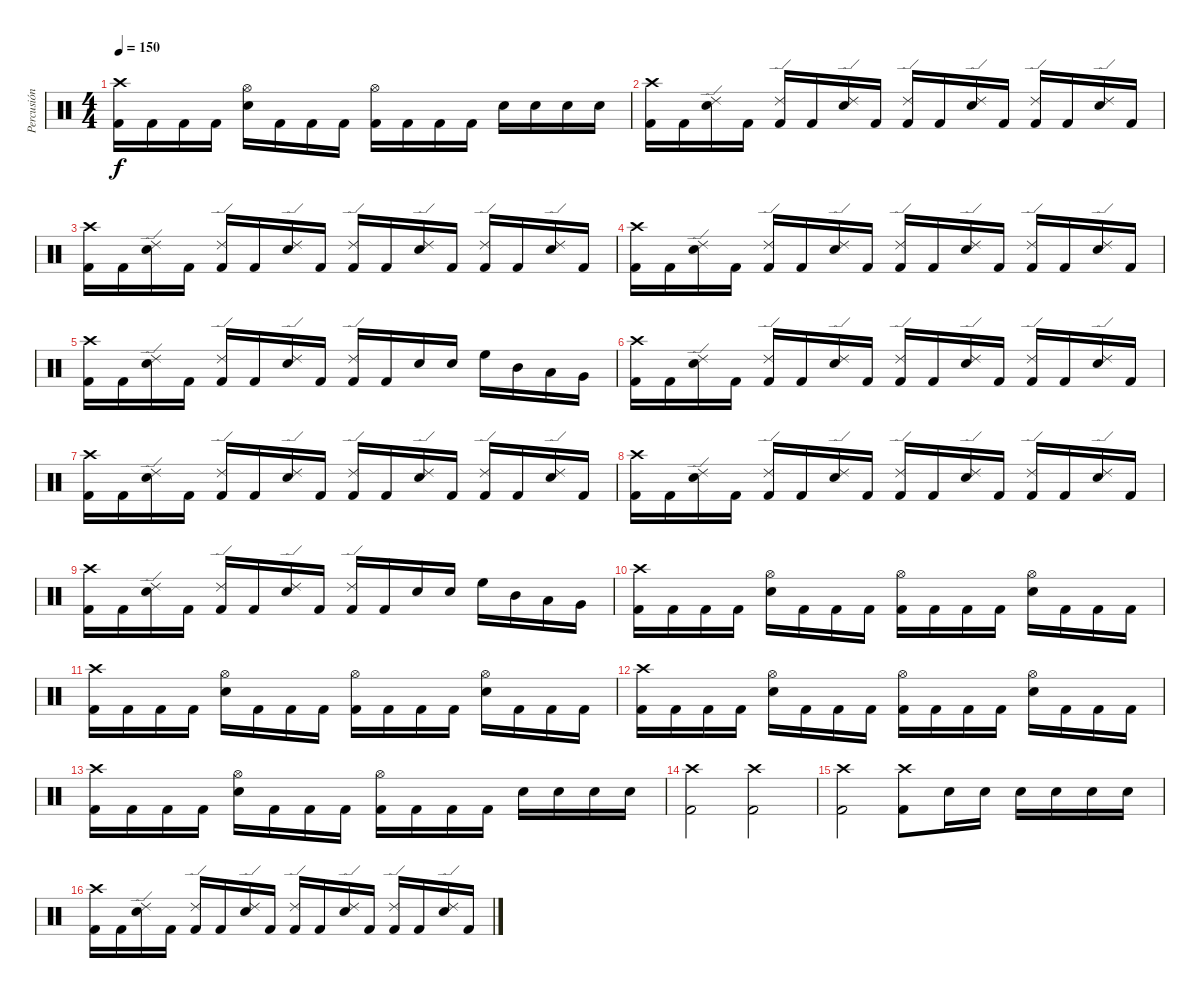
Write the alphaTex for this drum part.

\track ("Percusión" "Percusión") {instrument percussion}
\staff {score}
\articulation defaults
\ts (4 4)
\tempo 150
\clef neutral
\ks c
("Crash high (hit)" "Kick (hit) 2").16{dy f} "Kick (hit) 2".16 "Kick (hit) 2".16 "Kick (hit) 2".16 ("Hi-Hat (open)" "Electric Snare (hit)").16 "Kick (hit) 2".16 "Kick (hit) 2".16 "Kick (hit) 2".16 ("Hi-Hat (open)" "Kick (hit) 2").16 "Kick (hit) 2".16 "Kick (hit) 2".16 "Kick (hit) 2".16 "Electric Snare (hit)".16 "Electric Snare (hit)".16 "Electric Snare (hit)".16 "Electric Snare (hit)".16 |
("Crash high (hit)" "Kick (hit) 2").16 "Kick (hit) 2".16 ("Ride (edge) 2" "Electric Snare (hit)").16 "Kick (hit) 2".16 ("Ride (edge) 2" "Kick (hit) 2").16 "Kick (hit) 2".16 ("Ride (edge) 2" "Electric Snare (hit)").16 "Kick (hit) 2".16 ("Ride (edge) 2" "Kick (hit) 2").16 "Kick (hit) 2".16 ("Ride (edge) 2" "Electric Snare (hit)").16 "Kick (hit) 2".16 ("Ride (edge) 2" "Kick (hit) 2").16 "Kick (hit) 2".16 ("Ride (edge) 2" "Electric Snare (hit)").16 "Kick (hit) 2".16 |
("Crash high (hit)" "Kick (hit) 2").16 "Kick (hit) 2".16 ("Ride (edge) 2" "Electric Snare (hit)").16 "Kick (hit) 2".16 ("Ride (edge) 2" "Kick (hit) 2").16 "Kick (hit) 2".16 ("Ride (edge) 2" "Electric Snare (hit)").16 "Kick (hit) 2".16 ("Ride (edge) 2" "Kick (hit) 2").16 "Kick (hit) 2".16 ("Ride (edge) 2" "Electric Snare (hit)").16 "Kick (hit) 2".16 ("Ride (edge) 2" "Kick (hit) 2").16 "Kick (hit) 2".16 ("Ride (edge) 2" "Electric Snare (hit)").16 "Kick (hit) 2".16 |
("Crash high (hit)" "Kick (hit) 2").16 "Kick (hit) 2".16 ("Ride (edge) 2" "Electric Snare (hit)").16 "Kick (hit) 2".16 ("Ride (edge) 2" "Kick (hit) 2").16 "Kick (hit) 2".16 ("Ride (edge) 2" "Electric Snare (hit)").16 "Kick (hit) 2".16 ("Ride (edge) 2" "Kick (hit) 2").16 "Kick (hit) 2".16 ("Ride (edge) 2" "Electric Snare (hit)").16 "Kick (hit) 2".16 ("Ride (edge) 2" "Kick (hit) 2").16 "Kick (hit) 2".16 ("Ride (edge) 2" "Electric Snare (hit)").16 "Kick (hit) 2".16 |
("Crash high (hit)" "Kick (hit) 2").16 "Kick (hit) 2".16 ("Ride (edge) 2" "Electric Snare (hit)").16 "Kick (hit) 2".16 ("Ride (edge) 2" "Kick (hit) 2").16 "Kick (hit) 2".16 ("Ride (edge) 2" "Electric Snare (hit)").16 "Kick (hit) 2".16 ("Ride (edge) 2" "Kick (hit) 2").16 "Kick (hit) 2".16 "Electric Snare (hit)".16 "Electric Snare (hit)".16 "High Floor Tom (hit)".16 "Mid Tom (hit)".16 "Low Tom (hit)".16 "Very Low Tom (hit)".16 |
("Crash high (hit)" "Kick (hit) 2").16 "Kick (hit) 2".16 ("Ride (edge) 2" "Electric Snare (hit)").16 "Kick (hit) 2".16 ("Ride (edge) 2" "Kick (hit) 2").16 "Kick (hit) 2".16 ("Ride (edge) 2" "Electric Snare (hit)").16 "Kick (hit) 2".16 ("Ride (edge) 2" "Kick (hit) 2").16 "Kick (hit) 2".16 ("Ride (edge) 2" "Electric Snare (hit)").16 "Kick (hit) 2".16 ("Ride (edge) 2" "Kick (hit) 2").16 "Kick (hit) 2".16 ("Ride (edge) 2" "Electric Snare (hit)").16 "Kick (hit) 2".16 |
("Crash high (hit)" "Kick (hit) 2").16 "Kick (hit) 2".16 ("Ride (edge) 2" "Electric Snare (hit)").16 "Kick (hit) 2".16 ("Ride (edge) 2" "Kick (hit) 2").16 "Kick (hit) 2".16 ("Ride (edge) 2" "Electric Snare (hit)").16 "Kick (hit) 2".16 ("Ride (edge) 2" "Kick (hit) 2").16 "Kick (hit) 2".16 ("Ride (edge) 2" "Electric Snare (hit)").16 "Kick (hit) 2".16 ("Ride (edge) 2" "Kick (hit) 2").16 "Kick (hit) 2".16 ("Ride (edge) 2" "Electric Snare (hit)").16 "Kick (hit) 2".16 |
("Crash high (hit)" "Kick (hit) 2").16 "Kick (hit) 2".16 ("Ride (edge) 2" "Electric Snare (hit)").16 "Kick (hit) 2".16 ("Ride (edge) 2" "Kick (hit) 2").16 "Kick (hit) 2".16 ("Ride (edge) 2" "Electric Snare (hit)").16 "Kick (hit) 2".16 ("Ride (edge) 2" "Kick (hit) 2").16 "Kick (hit) 2".16 ("Ride (edge) 2" "Electric Snare (hit)").16 "Kick (hit) 2".16 ("Ride (edge) 2" "Kick (hit) 2").16 "Kick (hit) 2".16 ("Ride (edge) 2" "Electric Snare (hit)").16 "Kick (hit) 2".16 |
("Crash high (hit)" "Kick (hit) 2").16 "Kick (hit) 2".16 ("Ride (edge) 2" "Electric Snare (hit)").16 "Kick (hit) 2".16 ("Ride (edge) 2" "Kick (hit) 2").16 "Kick (hit) 2".16 ("Ride (edge) 2" "Electric Snare (hit)").16 "Kick (hit) 2".16 ("Ride (edge) 2" "Kick (hit) 2").16 "Kick (hit) 2".16 "Electric Snare (hit)".16 "Electric Snare (hit)".16 "High Floor Tom (hit)".16 "Mid Tom (hit)".16 "Low Tom (hit)".16 "Very Low Tom (hit)".16 |
("Crash high (hit)" "Kick (hit) 2").16 "Kick (hit) 2".16 "Kick (hit) 2".16 "Kick (hit) 2".16 ("Hi-Hat (open)" "Electric Snare (hit)").16 "Kick (hit) 2".16 "Kick (hit) 2".16 "Kick (hit) 2".16 ("Hi-Hat (open)" "Kick (hit) 2").16 "Kick (hit) 2".16 "Kick (hit) 2".16 "Kick (hit) 2".16 ("Hi-Hat (open)" "Electric Snare (hit)").16 "Kick (hit) 2".16 "Kick (hit) 2".16 "Kick (hit) 2".16 |
("Crash high (hit)" "Kick (hit) 2").16 "Kick (hit) 2".16 "Kick (hit) 2".16 "Kick (hit) 2".16 ("Hi-Hat (open)" "Electric Snare (hit)").16 "Kick (hit) 2".16 "Kick (hit) 2".16 "Kick (hit) 2".16 ("Hi-Hat (open)" "Kick (hit) 2").16 "Kick (hit) 2".16 "Kick (hit) 2".16 "Kick (hit) 2".16 ("Hi-Hat (open)" "Electric Snare (hit)").16 "Kick (hit) 2".16 "Kick (hit) 2".16 "Kick (hit) 2".16 |
("Crash high (hit)" "Kick (hit) 2").16 "Kick (hit) 2".16 "Kick (hit) 2".16 "Kick (hit) 2".16 ("Hi-Hat (open)" "Electric Snare (hit)").16 "Kick (hit) 2".16 "Kick (hit) 2".16 "Kick (hit) 2".16 ("Hi-Hat (open)" "Kick (hit) 2").16 "Kick (hit) 2".16 "Kick (hit) 2".16 "Kick (hit) 2".16 ("Hi-Hat (open)" "Electric Snare (hit)").16 "Kick (hit) 2".16 "Kick (hit) 2".16 "Kick (hit) 2".16 |
("Crash high (hit)" "Kick (hit) 2").16 "Kick (hit) 2".16 "Kick (hit) 2".16 "Kick (hit) 2".16 ("Hi-Hat (open)" "Electric Snare (hit)").16 "Kick (hit) 2".16 "Kick (hit) 2".16 "Kick (hit) 2".16 ("Hi-Hat (open)" "Kick (hit) 2").16 "Kick (hit) 2".16 "Kick (hit) 2".16 "Kick (hit) 2".16 "Electric Snare (hit)".16 "Electric Snare (hit)".16 "Electric Snare (hit)".16 "Electric Snare (hit)".16 |
("Crash high (hit)" "Kick (hit) 2").2 ("Crash high (hit)" "Kick (hit) 2").2 |
("Crash high (hit)" "Kick (hit) 2").2 ("Crash high (hit)" "Kick (hit) 2").8 "Electric Snare (hit)".16 "Electric Snare (hit)".16 "Electric Snare (hit)".16 "Electric Snare (hit)".16 "Electric Snare (hit)".16 "Electric Snare (hit)".16 |
("Crash high (hit)" "Kick (hit) 2").16 "Kick (hit) 2".16 ("Ride (edge) 2" "Electric Snare (hit)").16 "Kick (hit) 2".16 ("Ride (edge) 2" "Kick (hit) 2").16 "Kick (hit) 2".16 ("Ride (edge) 2" "Electric Snare (hit)").16 "Kick (hit) 2".16 ("Ride (edge) 2" "Kick (hit) 2").16 "Kick (hit) 2".16 ("Ride (edge) 2" "Electric Snare (hit)").16 "Kick (hit) 2".16 ("Ride (edge) 2" "Kick (hit) 2").16 "Kick (hit) 2".16 ("Ride (edge) 2" "Electric Snare (hit)").16 "Kick (hit) 2".16
